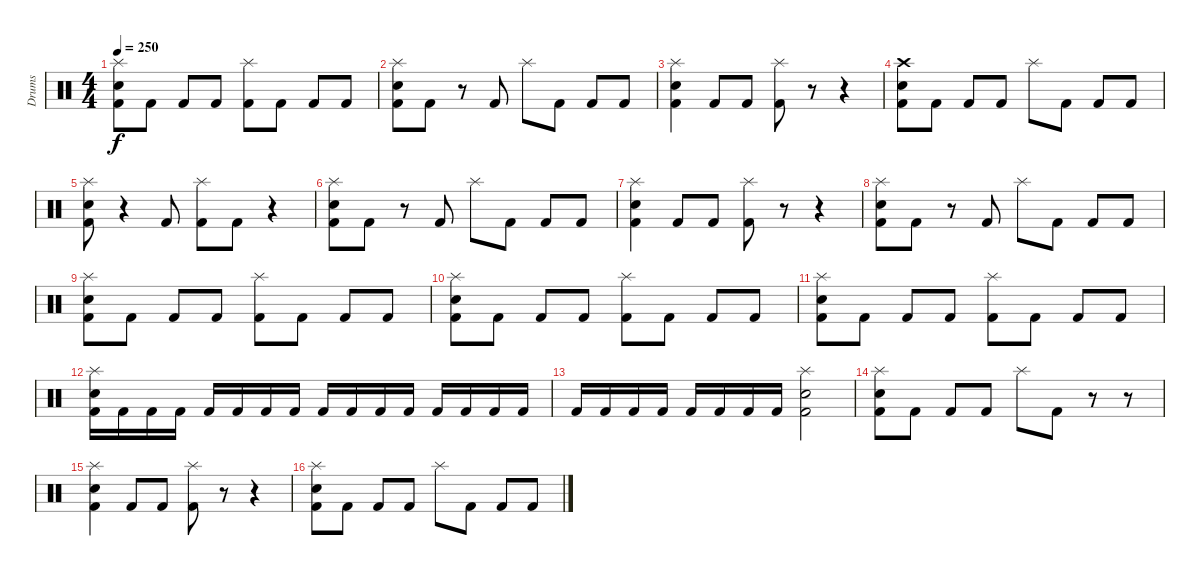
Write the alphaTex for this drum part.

\track ("Drums" "Drums") {instrument percussion}
\staff {score}
\articulation defaults
\ts (4 4)
\tempo 250
\clef neutral
\ks c
("Kick (hit) 2" "Electric Snare (hit)" "Splash (hit)").8{dy f} "Kick (hit) 2".8 "Kick (hit) 2".8 "Kick (hit) 2".8 ("Kick (hit) 2" "Splash (hit)").8 "Kick (hit) 2".8 "Kick (hit) 2".8 "Kick (hit) 2".8 |
("Kick (hit) 2" "Electric Snare (hit)" "Splash (hit)").8 "Kick (hit) 2".8 r.8 "Kick (hit) 2".8 "Splash (hit)".8 "Kick (hit) 2".8 "Kick (hit) 2".8 "Kick (hit) 2".8 |
("Kick (hit) 2" "Electric Snare (hit)" "Splash (hit)").4 "Kick (hit) 2".8 "Kick (hit) 2".8 ("Kick (hit) 2" "Splash (hit)").8 r.8 r.4 |
("Kick (hit) 2" "Electric Snare (hit)" "Crash high (hit)").8 "Kick (hit) 2".8 "Kick (hit) 2".8 "Kick (hit) 2".8 "Splash (hit)".8 "Kick (hit) 2".8 "Kick (hit) 2".8 "Kick (hit) 2".8 |
("Kick (hit) 2" "Electric Snare (hit)" "Splash (hit)").8 r.4 "Kick (hit) 2".8 ("Kick (hit) 2" "Splash (hit)").8 "Kick (hit) 2".8 r.4 |
("Kick (hit) 2" "Electric Snare (hit)" "Splash (hit)").8 "Kick (hit) 2".8 r.8 "Kick (hit) 2".8 "Splash (hit)".8 "Kick (hit) 2".8 "Kick (hit) 2".8 "Kick (hit) 2".8 |
("Kick (hit) 2" "Electric Snare (hit)" "Splash (hit)").4 "Kick (hit) 2".8 "Kick (hit) 2".8 ("Kick (hit) 2" "Splash (hit)").8 r.8 r.4 |
("Kick (hit) 2" "Electric Snare (hit)" "Splash (hit)").8 "Kick (hit) 2".8 r.8 "Kick (hit) 2".8 "Splash (hit)".8 "Kick (hit) 2".8 "Kick (hit) 2".8 "Kick (hit) 2".8 |
("Kick (hit) 2" "Electric Snare (hit)" "Splash (hit)").8 "Kick (hit) 2".8 "Kick (hit) 2".8 "Kick (hit) 2".8 ("Kick (hit) 2" "Splash (hit)").8 "Kick (hit) 2".8 "Kick (hit) 2".8 "Kick (hit) 2".8 |
("Kick (hit) 2" "Electric Snare (hit)" "Splash (hit)").8 "Kick (hit) 2".8 "Kick (hit) 2".8 "Kick (hit) 2".8 ("Kick (hit) 2" "Splash (hit)").8 "Kick (hit) 2".8 "Kick (hit) 2".8 "Kick (hit) 2".8 |
("Kick (hit) 2" "Electric Snare (hit)" "Splash (hit)").8 "Kick (hit) 2".8 "Kick (hit) 2".8 "Kick (hit) 2".8 ("Kick (hit) 2" "Splash (hit)").8 "Kick (hit) 2".8 "Kick (hit) 2".8 "Kick (hit) 2".8 |
("Kick (hit) 2" "Electric Snare (hit)" "Splash (hit)").16 "Kick (hit) 2".16 "Kick (hit) 2".16 "Kick (hit) 2".16 "Kick (hit) 2".16 "Kick (hit) 2".16 "Kick (hit) 2".16 "Kick (hit) 2".16 "Kick (hit) 2".16 "Kick (hit) 2".16 "Kick (hit) 2".16 "Kick (hit) 2".16 "Kick (hit) 2".16 "Kick (hit) 2".16 "Kick (hit) 2".16 "Kick (hit) 2".16 |
"Kick (hit) 2".16 "Kick (hit) 2".16 "Kick (hit) 2".16 "Kick (hit) 2".16 "Kick (hit) 2".16 "Kick (hit) 2".16 "Kick (hit) 2".16 "Kick (hit) 2".16 ("Kick (hit) 2" "Electric Snare (hit)" "Splash (hit)").2 |
("Kick (hit) 2" "Electric Snare (hit)" "Splash (hit)").8 "Kick (hit) 2".8 "Kick (hit) 2".8 "Kick (hit) 2".8 "Splash (hit)".8 "Kick (hit) 2".8 r.8 r.8 |
("Kick (hit) 2" "Electric Snare (hit)" "Splash (hit)").4 "Kick (hit) 2".8 "Kick (hit) 2".8 ("Kick (hit) 2" "Splash (hit)").8 r.8 r.4 |
("Kick (hit) 2" "Electric Snare (hit)" "Splash (hit)").8 "Kick (hit) 2".8 "Kick (hit) 2".8 "Kick (hit) 2".8 "Splash (hit)".8 "Kick (hit) 2".8 "Kick (hit) 2".8 "Kick (hit) 2".8
